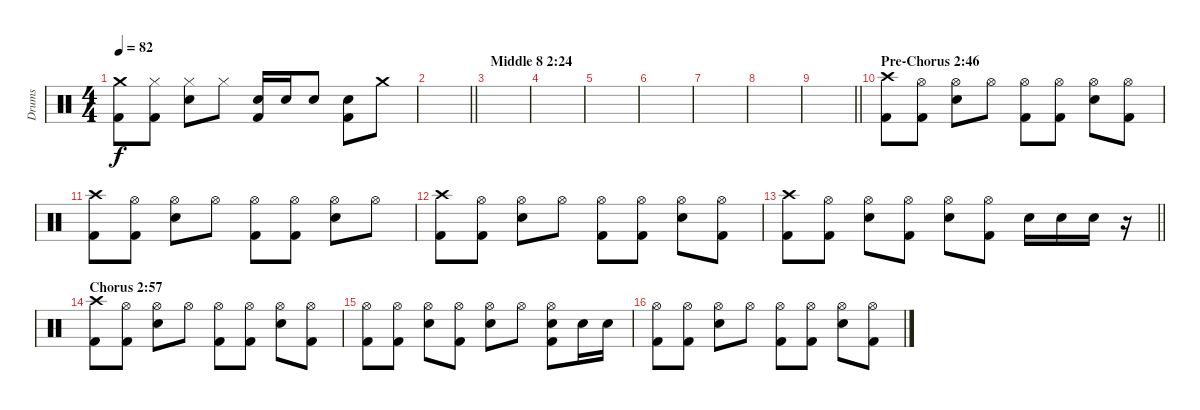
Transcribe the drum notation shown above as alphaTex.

\track ("Drums" "Drums") {instrument percussion}
\staff {score}
\articulation defaults
\ts (4 4)
\tempo 82
\clef neutral
\ks c
("Crash medium (hit)" "Kick (hit) 2").8{dy f} ("Hi-Hat (closed)" "Kick (hit) 2").8 ("Hi-Hat (closed)" "Snare (hit) 2").8 "Hi-Hat (closed)".8 ("Snare (hit) 2" "Kick (hit) 2").16 "Snare (hit) 2".16 "Snare (hit) 2".8 ("Snare (hit) 2" "Kick (hit) 2").8 "Crash medium (hit)".8 |
\barLineRight lightlight
|
\section ("" "Middle 8 2:24")
|
|
|
|
|
|
\barLineRight lightlight
|
\section ("" "Pre-Chorus 2:46")
("Crash high (hit)" "Kick (hit) 2").8 ("Hi-Hat (open)" "Kick (hit) 2").8 ("Hi-Hat (open)" "Snare (hit) 2").8 "Hi-Hat (open)".8 ("Hi-Hat (open)" "Kick (hit) 2").8 ("Hi-Hat (open)" "Kick (hit) 2").8 ("Hi-Hat (open)" "Snare (hit) 2").8 ("Hi-Hat (open)" "Kick (hit) 2").8 |
("Crash high (hit)" "Kick (hit) 2").8 ("Hi-Hat (open)" "Kick (hit) 2").8 ("Hi-Hat (open)" "Snare (hit) 2").8 "Hi-Hat (open)".8 ("Hi-Hat (open)" "Kick (hit) 2").8 ("Hi-Hat (open)" "Kick (hit) 2").8 ("Hi-Hat (open)" "Snare (hit) 2").8 "Hi-Hat (open)".8 |
("Crash high (hit)" "Kick (hit) 2").8 ("Hi-Hat (open)" "Kick (hit) 2").8 ("Hi-Hat (open)" "Snare (hit) 2").8 "Hi-Hat (open)".8 ("Hi-Hat (open)" "Kick (hit) 2").8 ("Hi-Hat (open)" "Kick (hit) 2").8 ("Hi-Hat (open)" "Snare (hit) 2").8 ("Hi-Hat (open)" "Kick (hit) 2").8 |
\barLineRight lightlight
("Crash high (hit)" "Kick (hit) 2").8 ("Hi-Hat (open)" "Kick (hit) 2").8 ("Hi-Hat (open)" "Snare (hit) 2").8 ("Hi-Hat (open)" "Kick (hit) 2").8 ("Hi-Hat (open)" "Snare (hit) 2").8 ("Hi-Hat (open)" "Kick (hit) 2").8 "Snare (hit) 2".16 "Snare (hit) 2".16 "Snare (hit) 2".16 r.16 |
\section ("" "Chorus 2:57")
("Crash high (hit)" "Kick (hit) 2").8 ("Hi-Hat (open)" "Kick (hit) 2").8 ("Hi-Hat (open)" "Snare (hit) 2").8 "Hi-Hat (open)".8 ("Hi-Hat (open)" "Kick (hit) 2").8 ("Hi-Hat (open)" "Kick (hit) 2").8 ("Hi-Hat (open)" "Snare (hit) 2").8 ("Hi-Hat (open)" "Kick (hit) 2").8 |
("Hi-Hat (open)" "Kick (hit) 2").8 ("Hi-Hat (open)" "Kick (hit) 2").8 ("Hi-Hat (open)" "Snare (hit) 2").8 ("Hi-Hat (open)" "Kick (hit) 2").8 ("Hi-Hat (open)" "Snare (hit) 2").8 "Hi-Hat (open)".8 ("Hi-Hat (open)" "Snare (hit) 2" "Kick (hit) 2").8 "Snare (hit) 2".16 "Snare (hit) 2".16 |
("Hi-Hat (open)" "Kick (hit) 2").8 ("Hi-Hat (open)" "Kick (hit) 2").8 ("Hi-Hat (open)" "Snare (hit) 2").8 "Hi-Hat (open)".8 ("Hi-Hat (open)" "Kick (hit) 2").8 ("Hi-Hat (open)" "Kick (hit) 2").8 ("Hi-Hat (open)" "Snare (hit) 2").8 ("Hi-Hat (open)" "Kick (hit) 2").8
